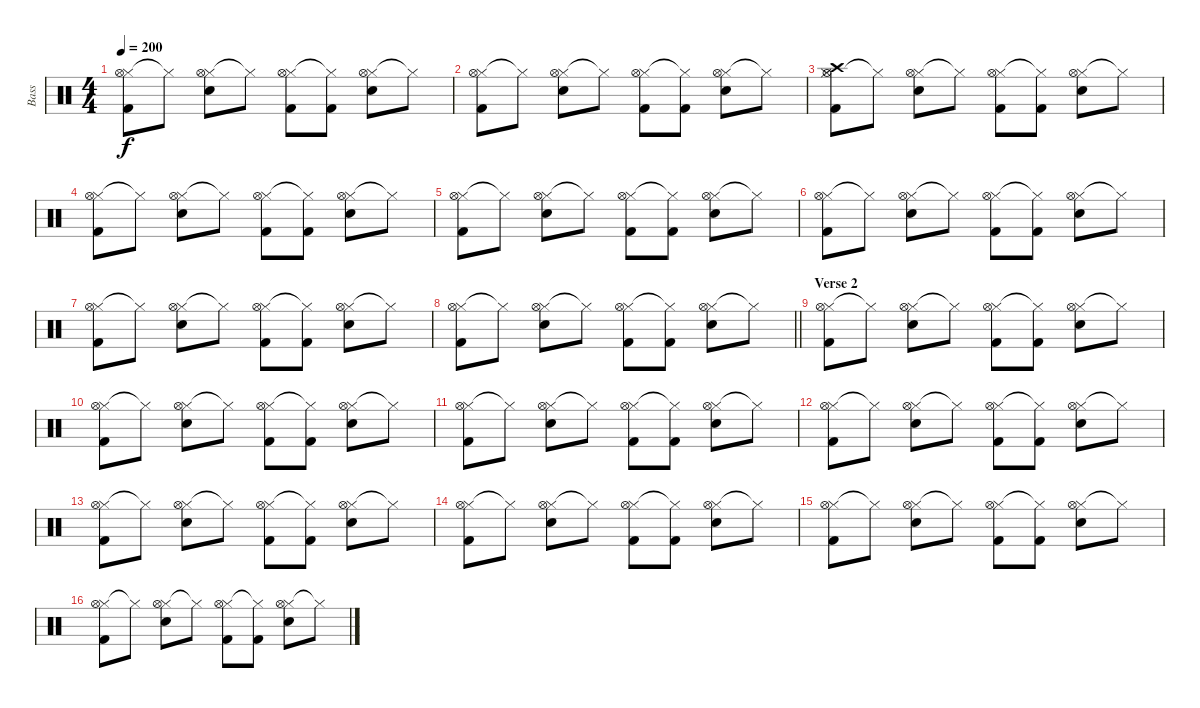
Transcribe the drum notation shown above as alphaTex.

\track ("Bass" "Bass") {instrument percussion}
\staff {score}
\articulation defaults
\ts (4 4)
\tempo 200
\clef neutral
\ks c
("Hi-Hat (closed)" "Hi-Hat (open)" "Kick (hit) 2").8{dy f} "Hi-Hat (closed)"{t}.8 ("Hi-Hat (closed)" "Hi-Hat (open)" "Snare (hit) 2").8 "Hi-Hat (closed)"{t}.8 ("Hi-Hat (closed)" "Hi-Hat (open)" "Kick (hit) 2").8 ("Hi-Hat (closed)"{t} "Kick (hit) 2").8 ("Hi-Hat (closed)" "Hi-Hat (open)" "Snare (hit) 2").8 "Hi-Hat (closed)"{t}.8 |
("Hi-Hat (closed)" "Hi-Hat (open)" "Kick (hit) 2").8 "Hi-Hat (closed)"{t}.8 ("Hi-Hat (closed)" "Hi-Hat (open)" "Snare (hit) 2").8 "Hi-Hat (closed)"{t}.8 ("Hi-Hat (closed)" "Hi-Hat (open)" "Kick (hit) 2").8 ("Hi-Hat (closed)"{t} "Kick (hit) 2").8 ("Hi-Hat (closed)" "Hi-Hat (open)" "Snare (hit) 2").8 "Hi-Hat (closed)"{t}.8 |
("Hi-Hat (closed)" "Hi-Hat (open)" "Crash high (hit)" "Kick (hit) 2").8 "Hi-Hat (closed)"{t}.8 ("Hi-Hat (closed)" "Hi-Hat (open)" "Snare (hit) 2").8 "Hi-Hat (closed)"{t}.8 ("Hi-Hat (closed)" "Hi-Hat (open)" "Kick (hit) 2").8 ("Hi-Hat (closed)"{t} "Kick (hit) 2").8 ("Hi-Hat (closed)" "Hi-Hat (open)" "Snare (hit) 2").8 "Hi-Hat (closed)"{t}.8 |
("Hi-Hat (closed)" "Hi-Hat (open)" "Kick (hit) 2").8 "Hi-Hat (closed)"{t}.8 ("Hi-Hat (closed)" "Hi-Hat (open)" "Snare (hit) 2").8 "Hi-Hat (closed)"{t}.8 ("Hi-Hat (closed)" "Hi-Hat (open)" "Kick (hit) 2").8 ("Hi-Hat (closed)"{t} "Kick (hit) 2").8 ("Hi-Hat (closed)" "Hi-Hat (open)" "Snare (hit) 2").8 "Hi-Hat (closed)"{t}.8 |
("Hi-Hat (closed)" "Hi-Hat (open)" "Kick (hit) 2").8 "Hi-Hat (closed)"{t}.8 ("Hi-Hat (closed)" "Hi-Hat (open)" "Snare (hit) 2").8 "Hi-Hat (closed)"{t}.8 ("Hi-Hat (closed)" "Hi-Hat (open)" "Kick (hit) 2").8 ("Hi-Hat (closed)"{t} "Kick (hit) 2").8 ("Hi-Hat (closed)" "Hi-Hat (open)" "Snare (hit) 2").8 "Hi-Hat (closed)"{t}.8 |
("Hi-Hat (closed)" "Hi-Hat (open)" "Kick (hit) 2").8 "Hi-Hat (closed)"{t}.8 ("Hi-Hat (closed)" "Hi-Hat (open)" "Snare (hit) 2").8 "Hi-Hat (closed)"{t}.8 ("Hi-Hat (closed)" "Hi-Hat (open)" "Kick (hit) 2").8 ("Hi-Hat (closed)"{t} "Kick (hit) 2").8 ("Hi-Hat (closed)" "Hi-Hat (open)" "Snare (hit) 2").8 "Hi-Hat (closed)"{t}.8 |
("Hi-Hat (closed)" "Hi-Hat (open)" "Kick (hit) 2").8 "Hi-Hat (closed)"{t}.8 ("Hi-Hat (closed)" "Hi-Hat (open)" "Snare (hit) 2").8 "Hi-Hat (closed)"{t}.8 ("Hi-Hat (closed)" "Hi-Hat (open)" "Kick (hit) 2").8 ("Hi-Hat (closed)"{t} "Kick (hit) 2").8 ("Hi-Hat (closed)" "Hi-Hat (open)" "Snare (hit) 2").8 "Hi-Hat (closed)"{t}.8 |
\barLineRight lightlight
("Hi-Hat (closed)" "Hi-Hat (open)" "Kick (hit) 2").8 "Hi-Hat (closed)"{t}.8 ("Hi-Hat (closed)" "Hi-Hat (open)" "Snare (hit) 2").8 "Hi-Hat (closed)"{t}.8 ("Hi-Hat (closed)" "Hi-Hat (open)" "Kick (hit) 2").8 ("Hi-Hat (closed)"{t} "Kick (hit) 2").8 ("Hi-Hat (closed)" "Hi-Hat (open)" "Snare (hit) 2").8 "Hi-Hat (closed)"{t}.8 |
\section ("" "Verse 2")
("Hi-Hat (closed)" "Hi-Hat (open)" "Kick (hit) 2").8 "Hi-Hat (closed)"{t}.8 ("Hi-Hat (closed)" "Hi-Hat (open)" "Snare (hit) 2").8 "Hi-Hat (closed)"{t}.8 ("Hi-Hat (closed)" "Hi-Hat (open)" "Kick (hit) 2").8 ("Hi-Hat (closed)"{t} "Kick (hit) 2").8 ("Hi-Hat (closed)" "Hi-Hat (open)" "Snare (hit) 2").8 "Hi-Hat (closed)"{t}.8 |
("Hi-Hat (closed)" "Hi-Hat (open)" "Kick (hit) 2").8 "Hi-Hat (closed)"{t}.8 ("Hi-Hat (closed)" "Hi-Hat (open)" "Snare (hit) 2").8 "Hi-Hat (closed)"{t}.8 ("Hi-Hat (closed)" "Hi-Hat (open)" "Kick (hit) 2").8 ("Hi-Hat (closed)"{t} "Kick (hit) 2").8 ("Hi-Hat (closed)" "Hi-Hat (open)" "Snare (hit) 2").8 "Hi-Hat (closed)"{t}.8 |
("Hi-Hat (closed)" "Hi-Hat (open)" "Kick (hit) 2").8 "Hi-Hat (closed)"{t}.8 ("Hi-Hat (closed)" "Hi-Hat (open)" "Snare (hit) 2").8 "Hi-Hat (closed)"{t}.8 ("Hi-Hat (closed)" "Hi-Hat (open)" "Kick (hit) 2").8 ("Hi-Hat (closed)"{t} "Kick (hit) 2").8 ("Hi-Hat (closed)" "Hi-Hat (open)" "Snare (hit) 2").8 "Hi-Hat (closed)"{t}.8 |
("Hi-Hat (closed)" "Hi-Hat (open)" "Kick (hit) 2").8 "Hi-Hat (closed)"{t}.8 ("Hi-Hat (closed)" "Hi-Hat (open)" "Snare (hit) 2").8 "Hi-Hat (closed)"{t}.8 ("Hi-Hat (closed)" "Hi-Hat (open)" "Kick (hit) 2").8 ("Hi-Hat (closed)"{t} "Kick (hit) 2").8 ("Hi-Hat (closed)" "Hi-Hat (open)" "Snare (hit) 2").8 "Hi-Hat (closed)"{t}.8 |
("Hi-Hat (closed)" "Hi-Hat (open)" "Kick (hit) 2").8 "Hi-Hat (closed)"{t}.8 ("Hi-Hat (closed)" "Hi-Hat (open)" "Snare (hit) 2").8 "Hi-Hat (closed)"{t}.8 ("Hi-Hat (closed)" "Hi-Hat (open)" "Kick (hit) 2").8 ("Hi-Hat (closed)"{t} "Kick (hit) 2").8 ("Hi-Hat (closed)" "Hi-Hat (open)" "Snare (hit) 2").8 "Hi-Hat (closed)"{t}.8 |
("Hi-Hat (closed)" "Hi-Hat (open)" "Kick (hit) 2").8 "Hi-Hat (closed)"{t}.8 ("Hi-Hat (closed)" "Hi-Hat (open)" "Snare (hit) 2").8 "Hi-Hat (closed)"{t}.8 ("Hi-Hat (closed)" "Hi-Hat (open)" "Kick (hit) 2").8 ("Hi-Hat (closed)"{t} "Kick (hit) 2").8 ("Hi-Hat (closed)" "Hi-Hat (open)" "Snare (hit) 2").8 "Hi-Hat (closed)"{t}.8 |
("Hi-Hat (closed)" "Hi-Hat (open)" "Kick (hit) 2").8 "Hi-Hat (closed)"{t}.8 ("Hi-Hat (closed)" "Hi-Hat (open)" "Snare (hit) 2").8 "Hi-Hat (closed)"{t}.8 ("Hi-Hat (closed)" "Hi-Hat (open)" "Kick (hit) 2").8 ("Hi-Hat (closed)"{t} "Kick (hit) 2").8 ("Hi-Hat (closed)" "Hi-Hat (open)" "Snare (hit) 2").8 "Hi-Hat (closed)"{t}.8 |
("Hi-Hat (closed)" "Hi-Hat (open)" "Kick (hit) 2").8 "Hi-Hat (closed)"{t}.8 ("Hi-Hat (closed)" "Hi-Hat (open)" "Snare (hit) 2").8 "Hi-Hat (closed)"{t}.8 ("Hi-Hat (closed)" "Hi-Hat (open)" "Kick (hit) 2").8 ("Hi-Hat (closed)"{t} "Kick (hit) 2").8 ("Hi-Hat (closed)" "Hi-Hat (open)" "Snare (hit) 2").8 "Hi-Hat (closed)"{t}.8
